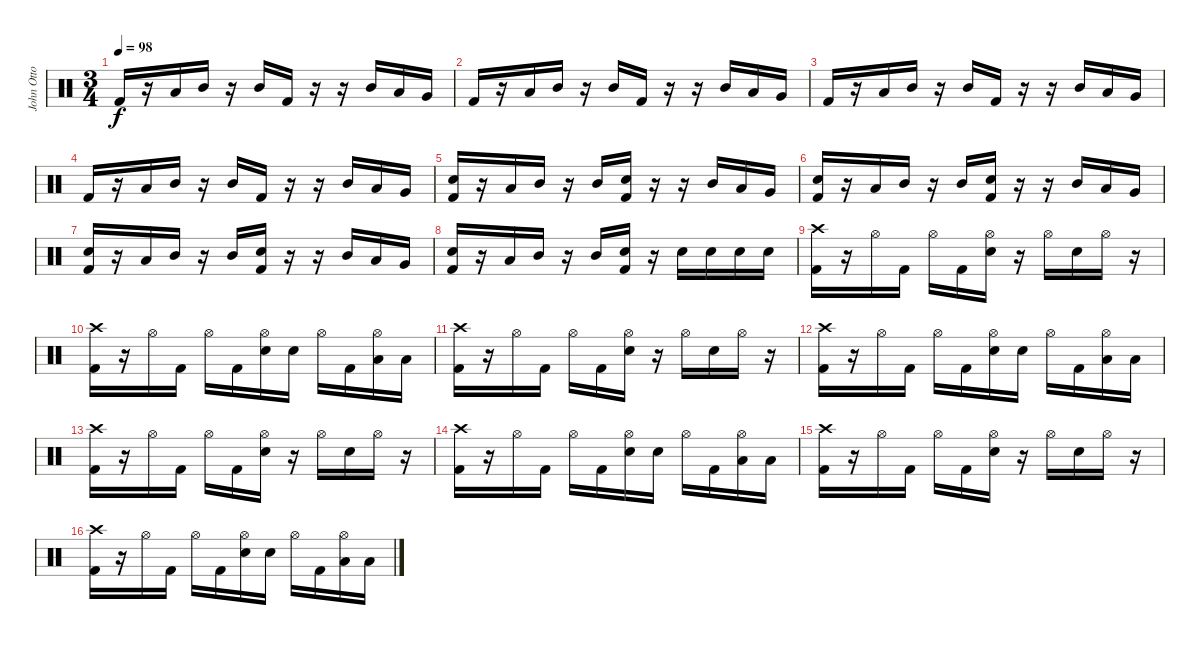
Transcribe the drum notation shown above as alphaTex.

\track ("John Otto - Drums" "John Otto ") {instrument percussion}
\staff {score}
\articulation defaults
\ts (3 4)
\tempo 98
\clef neutral
\ks c "Kick (hit) 2".16{dy f}
r.16 "Low Tom (hit)".16 "Mid Tom (hit)".16 r.16 "Mid Tom (hit)".16 "Kick (hit) 2".16 r.16 r.16 "Mid Tom (hit)".16 "Low Tom (hit)".16 "Very Low Tom (hit)".16 |
"Kick (hit) 2".16 r.16 "Low Tom (hit)".16 "Mid Tom (hit)".16 r.16 "Mid Tom (hit)".16 "Kick (hit) 2".16 r.16 r.16 "Mid Tom (hit)".16 "Low Tom (hit)".16 "Very Low Tom (hit)".16 |
"Kick (hit) 2".16 r.16 "Low Tom (hit)".16 "Mid Tom (hit)".16 r.16 "Mid Tom (hit)".16 "Kick (hit) 2".16 r.16 r.16 "Mid Tom (hit)".16 "Low Tom (hit)".16 "Very Low Tom (hit)".16 |
"Kick (hit) 2".16 r.16 "Low Tom (hit)".16 "Mid Tom (hit)".16 r.16 "Mid Tom (hit)".16 "Kick (hit) 2".16 r.16 r.16 "Mid Tom (hit)".16 "Low Tom (hit)".16 "Very Low Tom (hit)".16 |
("Electric Snare (hit)" "Kick (hit) 2").16 r.16 "Low Tom (hit)".16 "Mid Tom (hit)".16 r.16 "Mid Tom (hit)".16 ("Electric Snare (hit)" "Kick (hit) 2").16 r.16 r.16 "Mid Tom (hit)".16 "Low Tom (hit)".16 "Very Low Tom (hit)".16 |
("Electric Snare (hit)" "Kick (hit) 2").16 r.16 "Low Tom (hit)".16 "Mid Tom (hit)".16 r.16 "Mid Tom (hit)".16 ("Electric Snare (hit)" "Kick (hit) 2").16 r.16 r.16 "Mid Tom (hit)".16 "Low Tom (hit)".16 "Very Low Tom (hit)".16 |
("Electric Snare (hit)" "Kick (hit) 2").16 r.16 "Low Tom (hit)".16 "Mid Tom (hit)".16 r.16 "Mid Tom (hit)".16 ("Electric Snare (hit)" "Kick (hit) 2").16 r.16 r.16 "Mid Tom (hit)".16 "Low Tom (hit)".16 "Very Low Tom (hit)".16 |
("Electric Snare (hit)" "Kick (hit) 2").16 r.16 "Low Tom (hit)".16 "Mid Tom (hit)".16 r.16 "Mid Tom (hit)".16 ("Electric Snare (hit)" "Kick (hit) 2").16 r.16 "Electric Snare (hit)".16 "Electric Snare (hit)".16 "Electric Snare (hit)".16 "Electric Snare (hit)".16 |
("Crash high (hit)" "Kick (hit) 2").16 r.16 "Hi-Hat (open)".16 "Kick (hit) 2".16 "Hi-Hat (open)".16 "Kick (hit) 2".16 ("Hi-Hat (open)" "Electric Snare (hit)").16 r.16 "Hi-Hat (open)".16 "Electric Snare (hit)".16 "Hi-Hat (open)".16 r.16 |
("Crash high (hit)" "Kick (hit) 2").16 r.16 "Hi-Hat (open)".16 "Kick (hit) 2".16 "Hi-Hat (open)".16 "Kick (hit) 2".16 ("Hi-Hat (open)" "Electric Snare (hit)").16 "Electric Snare (hit)".16 "Hi-Hat (open)".16 "Kick (hit) 2".16 ("Hi-Hat (open)" "Low Tom (hit)").16 "Low Tom (hit)".16 |
("Crash high (hit)" "Kick (hit) 2").16 r.16 "Hi-Hat (open)".16 "Kick (hit) 2".16 "Hi-Hat (open)".16 "Kick (hit) 2".16 ("Hi-Hat (open)" "Electric Snare (hit)").16 r.16 "Hi-Hat (open)".16 "Electric Snare (hit)".16 "Hi-Hat (open)".16 r.16 |
("Crash high (hit)" "Kick (hit) 2").16 r.16 "Hi-Hat (open)".16 "Kick (hit) 2".16 "Hi-Hat (open)".16 "Kick (hit) 2".16 ("Hi-Hat (open)" "Electric Snare (hit)").16 "Electric Snare (hit)".16 "Hi-Hat (open)".16 "Kick (hit) 2".16 ("Hi-Hat (open)" "Low Tom (hit)").16 "Low Tom (hit)".16 |
("Crash high (hit)" "Kick (hit) 2").16 r.16 "Hi-Hat (open)".16 "Kick (hit) 2".16 "Hi-Hat (open)".16 "Kick (hit) 2".16 ("Hi-Hat (open)" "Electric Snare (hit)").16 r.16 "Hi-Hat (open)".16 "Electric Snare (hit)".16 "Hi-Hat (open)".16 r.16 |
("Crash high (hit)" "Kick (hit) 2").16 r.16 "Hi-Hat (open)".16 "Kick (hit) 2".16 "Hi-Hat (open)".16 "Kick (hit) 2".16 ("Hi-Hat (open)" "Electric Snare (hit)").16 "Electric Snare (hit)".16 "Hi-Hat (open)".16 "Kick (hit) 2".16 ("Hi-Hat (open)" "Low Tom (hit)").16 "Low Tom (hit)".16 |
("Crash high (hit)" "Kick (hit) 2").16 r.16 "Hi-Hat (open)".16 "Kick (hit) 2".16 "Hi-Hat (open)".16 "Kick (hit) 2".16 ("Hi-Hat (open)" "Electric Snare (hit)").16 r.16 "Hi-Hat (open)".16 "Electric Snare (hit)".16 "Hi-Hat (open)".16 r.16 |
("Crash high (hit)" "Kick (hit) 2").16 r.16 "Hi-Hat (open)".16 "Kick (hit) 2".16 "Hi-Hat (open)".16 "Kick (hit) 2".16 ("Hi-Hat (open)" "Electric Snare (hit)").16 "Electric Snare (hit)".16 "Hi-Hat (open)".16 "Kick (hit) 2".16 ("Hi-Hat (open)" "Low Tom (hit)").16 "Low Tom (hit)".16
